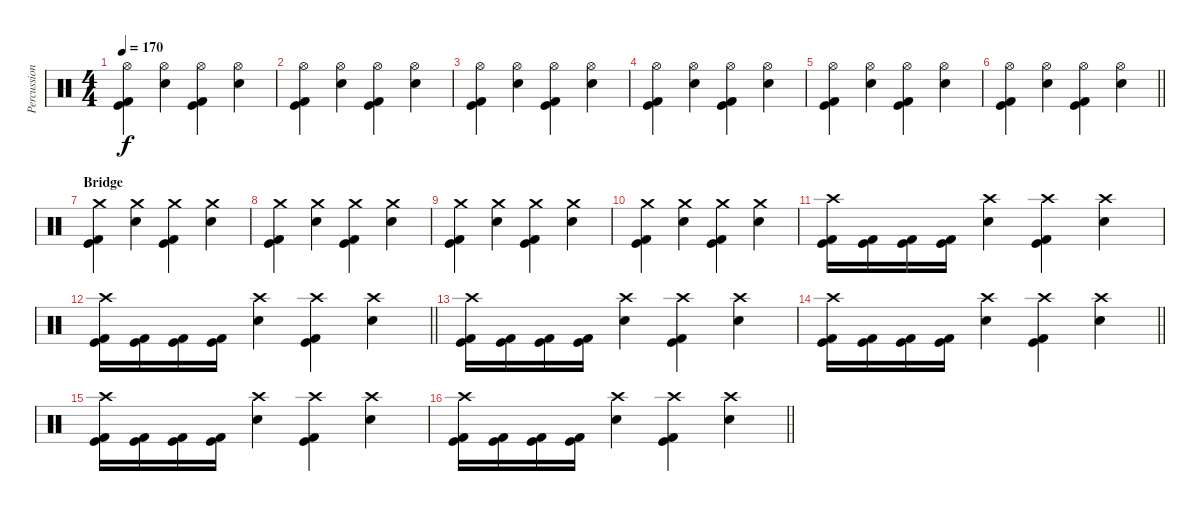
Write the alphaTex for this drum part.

\track ("Percussion" "Percussion") {instrument percussion}
\staff {score}
\articulation defaults
\ts (4 4)
\tempo 170
\clef neutral
\ks c
("Hi-Hat (open)" "Kick (hit) 2" "Kick (hit)").4{dy f} ("Hi-Hat (open)" "Electric Snare (hit)").4 ("Hi-Hat (open)" "Kick (hit) 2" "Kick (hit)").4 ("Hi-Hat (open)" "Electric Snare (hit)").4 |
("Hi-Hat (open)" "Kick (hit) 2" "Kick (hit)").4 ("Hi-Hat (open)" "Electric Snare (hit)").4 ("Hi-Hat (open)" "Kick (hit) 2" "Kick (hit)").4 ("Hi-Hat (open)" "Electric Snare (hit)").4 |
("Hi-Hat (open)" "Kick (hit) 2" "Kick (hit)").4 ("Hi-Hat (open)" "Electric Snare (hit)").4 ("Hi-Hat (open)" "Kick (hit) 2" "Kick (hit)").4 ("Hi-Hat (open)" "Electric Snare (hit)").4 |
("Hi-Hat (open)" "Kick (hit) 2" "Kick (hit)").4 ("Hi-Hat (open)" "Electric Snare (hit)").4 ("Hi-Hat (open)" "Kick (hit) 2" "Kick (hit)").4 ("Hi-Hat (open)" "Electric Snare (hit)").4 |
("Hi-Hat (open)" "Kick (hit) 2" "Kick (hit)").4 ("Hi-Hat (open)" "Electric Snare (hit)").4 ("Hi-Hat (open)" "Kick (hit) 2" "Kick (hit)").4 ("Hi-Hat (open)" "Electric Snare (hit)").4 |
\barLineRight lightlight
("Hi-Hat (open)" "Kick (hit) 2" "Kick (hit)").4 ("Hi-Hat (open)" "Electric Snare (hit)").4 ("Hi-Hat (open)" "Kick (hit) 2" "Kick (hit)").4 ("Hi-Hat (open)" "Electric Snare (hit)").4 |
\section ("" "Bridge")
("Crash medium (hit)" "Kick (hit) 2" "Kick (hit)").4 ("Crash medium (hit)" "Electric Snare (hit)").4 ("Crash medium (hit)" "Kick (hit) 2" "Kick (hit)").4 ("Crash medium (hit)" "Electric Snare (hit)").4 |
("Crash medium (hit)" "Kick (hit) 2" "Kick (hit)").4 ("Crash medium (hit)" "Electric Snare (hit)").4 ("Crash medium (hit)" "Kick (hit) 2" "Kick (hit)").4 ("Crash medium (hit)" "Electric Snare (hit)").4 |
("Crash medium (hit)" "Kick (hit) 2" "Kick (hit)").4 ("Crash medium (hit)" "Electric Snare (hit)").4 ("Crash medium (hit)" "Kick (hit) 2" "Kick (hit)").4 ("Crash medium (hit)" "Electric Snare (hit)").4 |
("Crash medium (hit)" "Kick (hit) 2" "Kick (hit)").4 ("Crash medium (hit)" "Electric Snare (hit)").4 ("Crash medium (hit)" "Kick (hit) 2" "Kick (hit)").4 ("Crash medium (hit)" "Electric Snare (hit)").4 |
("Crash high (hit)" "Kick (hit) 2" "Kick (hit)").16 ("Kick (hit) 2" "Kick (hit)").16 ("Kick (hit) 2" "Kick (hit)").16 ("Kick (hit) 2" "Kick (hit)").16 ("Crash high (hit)" "Electric Snare (hit)").4 ("Crash high (hit)" "Kick (hit) 2" "Kick (hit)").4 ("Crash high (hit)" "Electric Snare (hit)").4 |
\barLineRight lightlight
("Crash high (hit)" "Kick (hit) 2" "Kick (hit)").16 ("Kick (hit) 2" "Kick (hit)").16 ("Kick (hit) 2" "Kick (hit)").16 ("Kick (hit) 2" "Kick (hit)").16 ("Crash high (hit)" "Electric Snare (hit)").4 ("Crash high (hit)" "Kick (hit) 2" "Kick (hit)").4 ("Crash high (hit)" "Electric Snare (hit)").4 |
("Crash high (hit)" "Kick (hit) 2" "Kick (hit)").16 ("Kick (hit) 2" "Kick (hit)").16 ("Kick (hit) 2" "Kick (hit)").16 ("Kick (hit) 2" "Kick (hit)").16 ("Crash high (hit)" "Electric Snare (hit)").4 ("Crash high (hit)" "Kick (hit) 2" "Kick (hit)").4 ("Crash high (hit)" "Electric Snare (hit)").4 |
\barLineRight lightlight
("Crash high (hit)" "Kick (hit) 2" "Kick (hit)").16 ("Kick (hit) 2" "Kick (hit)").16 ("Kick (hit) 2" "Kick (hit)").16 ("Kick (hit) 2" "Kick (hit)").16 ("Crash high (hit)" "Electric Snare (hit)").4 ("Crash high (hit)" "Kick (hit) 2" "Kick (hit)").4 ("Crash high (hit)" "Electric Snare (hit)").4 |
("Crash high (hit)" "Kick (hit) 2" "Kick (hit)").16 ("Kick (hit) 2" "Kick (hit)").16 ("Kick (hit) 2" "Kick (hit)").16 ("Kick (hit) 2" "Kick (hit)").16 ("Crash high (hit)" "Electric Snare (hit)").4 ("Crash high (hit)" "Kick (hit) 2" "Kick (hit)").4 ("Crash high (hit)" "Electric Snare (hit)").4 |
\barLineRight lightlight
("Crash high (hit)" "Kick (hit) 2" "Kick (hit)").16 ("Kick (hit) 2" "Kick (hit)").16 ("Kick (hit) 2" "Kick (hit)").16 ("Kick (hit) 2" "Kick (hit)").16 ("Crash high (hit)" "Electric Snare (hit)").4 ("Crash high (hit)" "Kick (hit) 2" "Kick (hit)").4 ("Crash high (hit)" "Electric Snare (hit)").4
